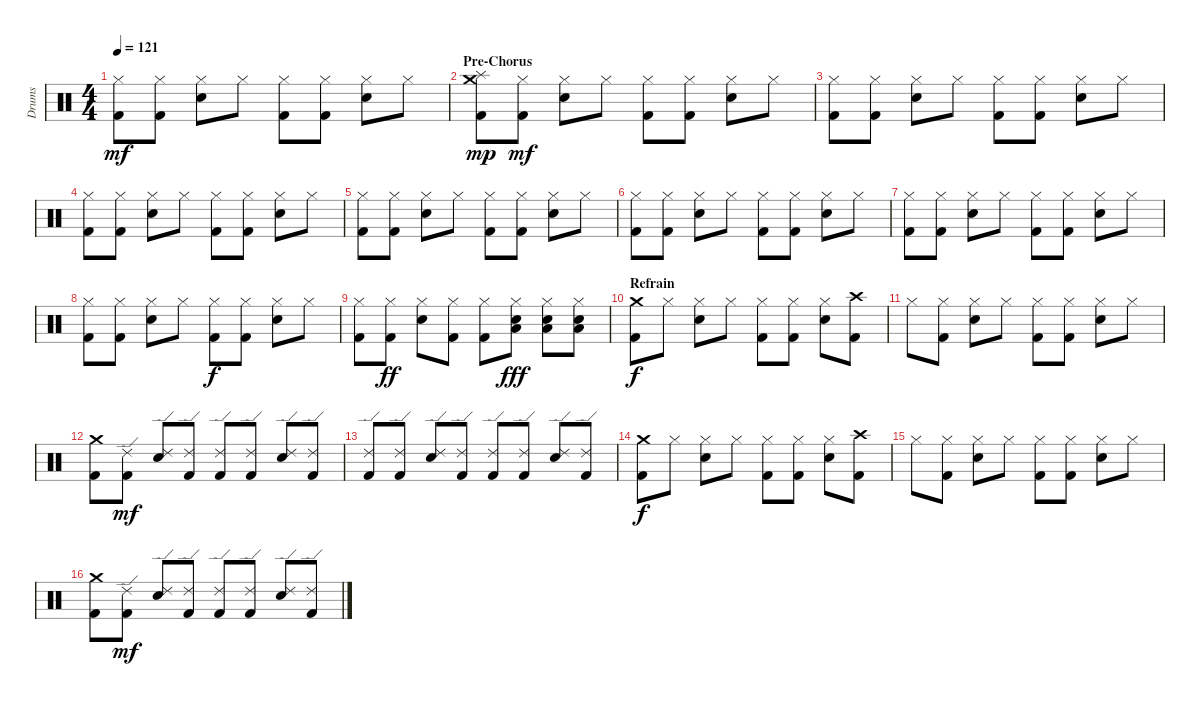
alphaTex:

\track ("Drums" "Drums") {instrument percussion}
\staff {score}
\articulation defaults
\ts (4 4)
\tempo 121
\clef neutral
\ks c
("Hi-Hat (closed)" "Kick (hit) 2").8{dy mf} ("Hi-Hat (closed)" "Kick (hit) 2").8 ("Hi-Hat (closed)" "Electric Snare (hit)").8 "Hi-Hat (closed)".8 ("Hi-Hat (closed)" "Kick (hit) 2").8 ("Hi-Hat (closed)" "Kick (hit) 2").8 ("Hi-Hat (closed)" "Electric Snare (hit)").8 "Hi-Hat (closed)".8 |
\section ("" "Pre-Chorus")
("Crash medium (hit)" "Splash (hit)" "Kick (hit) 2").8{dy mp} ("Hi-Hat (closed)" "Kick (hit) 2").8{dy mf} ("Hi-Hat (closed)" "Electric Snare (hit)").8 "Hi-Hat (closed)".8 ("Hi-Hat (closed)" "Kick (hit) 2").8 ("Hi-Hat (closed)" "Kick (hit) 2").8 ("Hi-Hat (closed)" "Electric Snare (hit)").8 "Hi-Hat (closed)".8 |
("Hi-Hat (closed)" "Kick (hit) 2").8 ("Hi-Hat (closed)" "Kick (hit) 2").8 ("Hi-Hat (closed)" "Electric Snare (hit)").8 "Hi-Hat (closed)".8 ("Hi-Hat (closed)" "Kick (hit) 2").8 ("Hi-Hat (closed)" "Kick (hit) 2").8 ("Hi-Hat (closed)" "Electric Snare (hit)").8 "Hi-Hat (closed)".8 |
("Hi-Hat (closed)" "Kick (hit) 2").8 ("Hi-Hat (closed)" "Kick (hit) 2").8 ("Hi-Hat (closed)" "Electric Snare (hit)").8 "Hi-Hat (closed)".8 ("Hi-Hat (closed)" "Kick (hit) 2").8 ("Hi-Hat (closed)" "Kick (hit) 2").8 ("Hi-Hat (closed)" "Electric Snare (hit)").8 "Hi-Hat (closed)".8 |
("Hi-Hat (closed)" "Kick (hit) 2").8 ("Hi-Hat (closed)" "Kick (hit) 2").8 ("Hi-Hat (closed)" "Electric Snare (hit)").8 "Hi-Hat (closed)".8 ("Hi-Hat (closed)" "Kick (hit) 2").8 ("Hi-Hat (closed)" "Kick (hit) 2").8 ("Hi-Hat (closed)" "Electric Snare (hit)").8 "Hi-Hat (closed)".8 |
("Hi-Hat (closed)" "Kick (hit) 2").8 ("Hi-Hat (closed)" "Kick (hit) 2").8 ("Hi-Hat (closed)" "Electric Snare (hit)").8 "Hi-Hat (closed)".8 ("Hi-Hat (closed)" "Kick (hit) 2").8 ("Hi-Hat (closed)" "Kick (hit) 2").8 ("Hi-Hat (closed)" "Electric Snare (hit)").8 "Hi-Hat (closed)".8 |
("Hi-Hat (closed)" "Kick (hit) 2").8 ("Hi-Hat (closed)" "Kick (hit) 2").8 ("Hi-Hat (closed)" "Electric Snare (hit)").8 "Hi-Hat (closed)".8 ("Hi-Hat (closed)" "Kick (hit) 2").8 ("Hi-Hat (closed)" "Kick (hit) 2").8 ("Hi-Hat (closed)" "Electric Snare (hit)").8 "Hi-Hat (closed)".8 |
("Hi-Hat (closed)" "Kick (hit) 2").8 ("Hi-Hat (closed)" "Kick (hit) 2").8 ("Hi-Hat (closed)" "Electric Snare (hit)").8 "Hi-Hat (closed)".8 ("Hi-Hat (closed)" "Kick (hit) 2").8{dy f} ("Hi-Hat (closed)" "Kick (hit) 2").8 ("Hi-Hat (closed)" "Electric Snare (hit)").8 "Hi-Hat (closed)".8 |
("Hi-Hat (closed)" "Kick (hit) 2").8 ("Hi-Hat (closed)" "Kick (hit) 2").8{dy ff} ("Hi-Hat (closed)" "Electric Snare (hit)").8 ("Hi-Hat (closed)" "Kick (hit) 2").8 ("Hi-Hat (closed)" "Kick (hit) 2").8 ("Hi-Hat (closed)" "Electric Snare (hit)" "Low Tom (hit)").8{dy fff} ("Hi-Hat (closed)" "Electric Snare (hit)" "Low Tom (hit)").8 ("Hi-Hat (closed)" "Electric Snare (hit)" "Low Tom (hit)").8 |
\section ("" "Refrain")
("Crash medium (hit)" "Kick (hit) 2").8{dy f} "Hi-Hat (closed)".8 ("Hi-Hat (closed)" "Electric Snare (hit)").8 "Hi-Hat (closed)".8 ("Hi-Hat (closed)" "Kick (hit) 2").8 ("Hi-Hat (closed)" "Kick (hit) 2").8 ("Hi-Hat (closed)" "Electric Snare (hit)").8 ("Crash high (hit)" "Kick (hit) 2").8 |
"Hi-Hat (closed)".8 ("Hi-Hat (closed)" "Kick (hit) 2").8 ("Hi-Hat (closed)" "Electric Snare (hit)").8 "Hi-Hat (closed)".8 ("Hi-Hat (closed)" "Kick (hit) 2").8 ("Hi-Hat (closed)" "Kick (hit) 2").8 ("Hi-Hat (closed)" "Electric Snare (hit)").8 "Hi-Hat (closed)".8 |
("Crash medium (hit)" "Kick (hit) 2").8 ("Ride (edge) 2" "Kick (hit) 2").8{dy mf} ("Ride (edge) 2" "Electric Snare (hit)").8 ("Ride (edge) 2" "Kick (hit) 2").8 ("Ride (edge) 2" "Kick (hit) 2").8 ("Ride (edge) 2" "Kick (hit) 2").8 ("Ride (edge) 2" "Electric Snare (hit)").8 ("Ride (edge) 2" "Kick (hit) 2").8 |
("Ride (edge) 2" "Kick (hit) 2").8 ("Ride (edge) 2" "Kick (hit) 2").8 ("Ride (edge) 2" "Electric Snare (hit)").8 ("Ride (edge) 2" "Kick (hit) 2").8 ("Ride (edge) 2" "Kick (hit) 2").8 ("Ride (edge) 2" "Kick (hit) 2").8 ("Ride (edge) 2" "Electric Snare (hit)").8 ("Ride (edge) 2" "Kick (hit) 2").8 |
("Crash medium (hit)" "Kick (hit) 2").8{dy f} "Hi-Hat (closed)".8 ("Hi-Hat (closed)" "Electric Snare (hit)").8 "Hi-Hat (closed)".8 ("Hi-Hat (closed)" "Kick (hit) 2").8 ("Hi-Hat (closed)" "Kick (hit) 2").8 ("Hi-Hat (closed)" "Electric Snare (hit)").8 ("Crash high (hit)" "Kick (hit) 2").8 |
"Hi-Hat (closed)".8 ("Hi-Hat (closed)" "Kick (hit) 2").8 ("Hi-Hat (closed)" "Electric Snare (hit)").8 "Hi-Hat (closed)".8 ("Hi-Hat (closed)" "Kick (hit) 2").8 ("Hi-Hat (closed)" "Kick (hit) 2").8 ("Hi-Hat (closed)" "Electric Snare (hit)").8 "Hi-Hat (closed)".8 |
("Crash medium (hit)" "Kick (hit) 2").8 ("Ride (edge) 2" "Kick (hit) 2").8{dy mf} ("Ride (edge) 2" "Electric Snare (hit)").8 ("Ride (edge) 2" "Kick (hit) 2").8 ("Ride (edge) 2" "Kick (hit) 2").8 ("Ride (edge) 2" "Kick (hit) 2").8 ("Ride (edge) 2" "Electric Snare (hit)").8 ("Ride (edge) 2" "Kick (hit) 2").8
